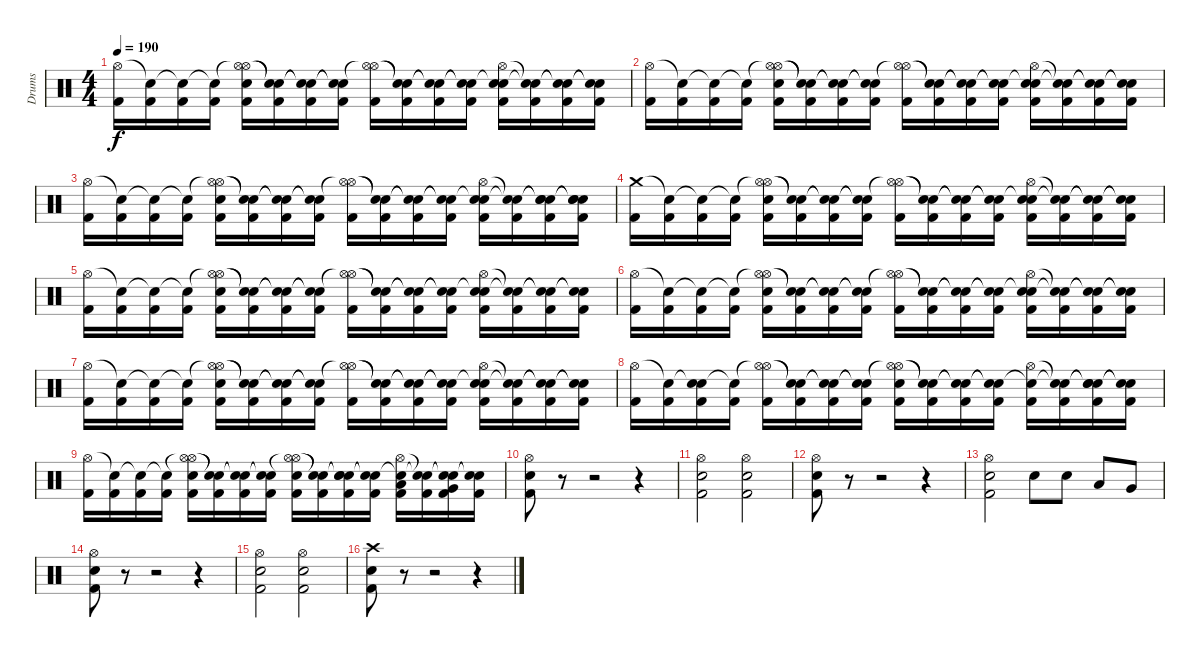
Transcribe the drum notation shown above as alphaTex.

\track ("Drums" "Drums") {instrument percussion}
\staff {score}
\articulation defaults
\ts (4 4)
\tempo 190
\clef neutral
\ks c
("Hi-Hat (open)" "Kick (hit) 2").16{dy f} ("Snare (hit)"{t} "Kick (hit) 2").16 ("Snare (hit)"{t} "Kick (hit) 2").16 ("Snare (hit)"{t} "Kick (hit) 2").16 ("Hi-Hat (open)"{t} "Hi-Hat (open)" "Electric Snare (hit)" "Kick (hit) 2").16 ("Snare (hit)"{t} "Snare (hit)"{t} "Kick (hit) 2").16 ("Snare (hit)"{t} "Snare (hit)"{t} "Kick (hit) 2").16 ("Snare (hit)"{t} "Snare (hit)"{t} "Kick (hit) 2").16 ("Hi-Hat (open)" "Hi-Hat (open)"{t} "Kick (hit) 2").16 ("Snare (hit)"{t} "Snare (hit)"{t} "Kick (hit) 2").16 ("Snare (hit)"{t} "Snare (hit)"{t} "Kick (hit) 2").16 ("Snare (hit)"{t} "Snare (hit)"{t} "Kick (hit) 2").16 ("Snare (hit)"{t} "Hi-Hat (open)" "Electric Snare (hit)" "Kick (hit) 2").16 ("Snare (hit)"{t} "Snare (hit)"{t} "Kick (hit) 2").16 ("Snare (hit)"{t} "Snare (hit)"{t} "Kick (hit) 2").16 ("Snare (hit)"{t} "Snare (hit)"{t} "Kick (hit) 2").16 |
("Hi-Hat (open)" "Kick (hit) 2").16 ("Snare (hit)"{t} "Kick (hit) 2").16 ("Snare (hit)"{t} "Kick (hit) 2").16 ("Snare (hit)"{t} "Kick (hit) 2").16 ("Hi-Hat (open)"{t} "Hi-Hat (open)" "Electric Snare (hit)" "Kick (hit) 2").16 ("Snare (hit)"{t} "Snare (hit)"{t} "Kick (hit) 2").16 ("Snare (hit)"{t} "Snare (hit)"{t} "Kick (hit) 2").16 ("Snare (hit)"{t} "Snare (hit)"{t} "Kick (hit) 2").16 ("Hi-Hat (open)" "Hi-Hat (open)"{t} "Kick (hit) 2").16 ("Snare (hit)"{t} "Snare (hit)"{t} "Kick (hit) 2").16 ("Snare (hit)"{t} "Snare (hit)"{t} "Kick (hit) 2").16 ("Snare (hit)"{t} "Snare (hit)"{t} "Kick (hit) 2").16 ("Snare (hit)"{t} "Hi-Hat (open)" "Electric Snare (hit)" "Kick (hit) 2").16 ("Snare (hit)"{t} "Snare (hit)"{t} "Kick (hit) 2").16 ("Snare (hit)"{t} "Snare (hit)"{t} "Kick (hit) 2").16 ("Snare (hit)"{t} "Snare (hit)"{t} "Kick (hit) 2").16 |
("Hi-Hat (open)" "Kick (hit) 2").16 ("Snare (hit)"{t} "Kick (hit) 2").16 ("Snare (hit)"{t} "Kick (hit) 2").16 ("Snare (hit)"{t} "Kick (hit) 2").16 ("Hi-Hat (open)"{t} "Hi-Hat (open)" "Electric Snare (hit)" "Kick (hit) 2").16 ("Snare (hit)"{t} "Snare (hit)"{t} "Kick (hit) 2").16 ("Snare (hit)"{t} "Snare (hit)"{t} "Kick (hit) 2").16 ("Snare (hit)"{t} "Snare (hit)"{t} "Kick (hit) 2").16 ("Hi-Hat (open)" "Hi-Hat (open)"{t} "Kick (hit) 2").16 ("Snare (hit)"{t} "Snare (hit)"{t} "Kick (hit) 2").16 ("Snare (hit)"{t} "Snare (hit)"{t} "Kick (hit) 2").16 ("Snare (hit)"{t} "Snare (hit)"{t} "Kick (hit) 2").16 ("Snare (hit)"{t} "Hi-Hat (open)" "Electric Snare (hit)" "Kick (hit) 2").16 ("Snare (hit)"{t} "Snare (hit)"{t} "Kick (hit) 2").16 ("Snare (hit)"{t} "Snare (hit)"{t} "Electric Snare (hit)" "Kick (hit) 2").16 ("Snare (hit)"{t} "Snare (hit)"{t} "Electric Snare (hit)" "Kick (hit) 2").16 |
("Crash medium (hit)" "Kick (hit) 2").16 ("Snare (hit)"{t} "Kick (hit) 2").16 ("Snare (hit)"{t} "Kick (hit) 2").16 ("Snare (hit)"{t} "Kick (hit) 2").16 ("Hi-Hat (open)"{t} "Hi-Hat (open)" "Electric Snare (hit)" "Kick (hit) 2").16 ("Snare (hit)"{t} "Snare (hit)"{t} "Kick (hit) 2").16 ("Snare (hit)"{t} "Snare (hit)"{t} "Kick (hit) 2").16 ("Snare (hit)"{t} "Snare (hit)"{t} "Kick (hit) 2").16 ("Hi-Hat (open)" "Hi-Hat (open)"{t} "Kick (hit) 2").16 ("Snare (hit)"{t} "Snare (hit)"{t} "Kick (hit) 2").16 ("Snare (hit)"{t} "Snare (hit)"{t} "Kick (hit) 2").16 ("Snare (hit)"{t} "Snare (hit)"{t} "Kick (hit) 2").16 ("Snare (hit)"{t} "Hi-Hat (open)" "Electric Snare (hit)" "Kick (hit) 2").16 ("Snare (hit)"{t} "Snare (hit)"{t} "Kick (hit) 2").16 ("Snare (hit)"{t} "Snare (hit)"{t} "Kick (hit) 2").16 ("Snare (hit)"{t} "Snare (hit)"{t} "Kick (hit) 2").16 |
("Hi-Hat (open)" "Kick (hit) 2").16 ("Snare (hit)"{t} "Kick (hit) 2").16 ("Snare (hit)"{t} "Kick (hit) 2").16 ("Snare (hit)"{t} "Kick (hit) 2").16 ("Hi-Hat (open)"{t} "Hi-Hat (open)" "Electric Snare (hit)" "Kick (hit) 2").16 ("Snare (hit)"{t} "Snare (hit)"{t} "Kick (hit) 2").16 ("Snare (hit)"{t} "Snare (hit)"{t} "Kick (hit) 2").16 ("Snare (hit)"{t} "Snare (hit)"{t} "Kick (hit) 2").16 ("Hi-Hat (open)" "Hi-Hat (open)"{t} "Kick (hit) 2").16 ("Snare (hit)"{t} "Snare (hit)"{t} "Kick (hit) 2").16 ("Snare (hit)"{t} "Snare (hit)"{t} "Kick (hit) 2").16 ("Snare (hit)"{t} "Snare (hit)"{t} "Kick (hit) 2").16 ("Snare (hit)"{t} "Hi-Hat (open)" "Electric Snare (hit)" "Kick (hit) 2").16 ("Snare (hit)"{t} "Snare (hit)"{t} "Kick (hit) 2").16 ("Snare (hit)"{t} "Snare (hit)"{t} "Kick (hit) 2").16 ("Snare (hit)"{t} "Snare (hit)"{t} "Kick (hit) 2").16 |
("Hi-Hat (open)" "Kick (hit) 2").16 ("Snare (hit)"{t} "Kick (hit) 2").16 ("Snare (hit)"{t} "Kick (hit) 2").16 ("Snare (hit)"{t} "Kick (hit) 2").16 ("Hi-Hat (open)"{t} "Hi-Hat (open)" "Electric Snare (hit)" "Kick (hit) 2").16 ("Snare (hit)"{t} "Snare (hit)"{t} "Kick (hit) 2").16 ("Snare (hit)"{t} "Snare (hit)"{t} "Kick (hit) 2").16 ("Snare (hit)"{t} "Snare (hit)"{t} "Kick (hit) 2").16 ("Hi-Hat (open)" "Hi-Hat (open)"{t} "Kick (hit) 2").16 ("Snare (hit)"{t} "Snare (hit)"{t} "Kick (hit) 2").16 ("Snare (hit)"{t} "Snare (hit)"{t} "Kick (hit) 2").16 ("Snare (hit)"{t} "Snare (hit)"{t} "Kick (hit) 2").16 ("Snare (hit)"{t} "Hi-Hat (open)" "Electric Snare (hit)" "Kick (hit) 2").16 ("Snare (hit)"{t} "Snare (hit)"{t} "Kick (hit) 2").16 ("Snare (hit)"{t} "Snare (hit)"{t} "Kick (hit) 2").16 ("Snare (hit)"{t} "Snare (hit)"{t} "Kick (hit) 2").16 |
("Hi-Hat (open)" "Kick (hit) 2").16 ("Snare (hit)"{t} "Kick (hit) 2").16 ("Snare (hit)"{t} "Kick (hit) 2").16 ("Snare (hit)"{t} "Kick (hit) 2").16 ("Hi-Hat (open)"{t} "Hi-Hat (open)" "Electric Snare (hit)" "Kick (hit) 2").16 ("Snare (hit)"{t} "Snare (hit)"{t} "Kick (hit) 2").16 ("Snare (hit)"{t} "Snare (hit)"{t} "Kick (hit) 2").16 ("Snare (hit)"{t} "Snare (hit)"{t} "Kick (hit) 2").16 ("Hi-Hat (open)" "Hi-Hat (open)"{t} "Kick (hit) 2").16 ("Snare (hit)"{t} "Snare (hit)"{t} "Kick (hit) 2").16 ("Snare (hit)"{t} "Snare (hit)"{t} "Kick (hit) 2").16 ("Snare (hit)"{t} "Snare (hit)"{t} "Kick (hit) 2").16 ("Snare (hit)"{t} "Hi-Hat (open)" "Electric Snare (hit)" "Kick (hit) 2").16 ("Snare (hit)"{t} "Snare (hit)"{t} "Kick (hit) 2").16 ("Snare (hit)"{t} "Snare (hit)"{t} "Kick (hit) 2").16 ("Snare (hit)"{t} "Snare (hit)"{t} "Kick (hit) 2").16 |
("Hi-Hat (open)" "Kick (hit) 2").16 ("Snare (hit)"{t} "Kick (hit) 2").16 ("Snare (hit)"{t} "Electric Snare (hit)" "Kick (hit) 2").16 ("Snare (hit)"{t} "Kick (hit) 2").16 ("Hi-Hat (open)"{t} "Hi-Hat (open)" "Kick (hit) 2").16 ("Snare (hit)"{t} "Snare (hit)"{t} "Kick (hit) 2").16 ("Snare (hit)"{t} "Snare (hit)"{t} "Kick (hit) 2").16 ("Snare (hit)"{t} "Snare (hit)"{t} "Kick (hit) 2").16 ("Hi-Hat (open)" "Hi-Hat (open)"{t} "Electric Snare (hit)" "Kick (hit) 2").16 ("Snare (hit)"{t} "Snare (hit)"{t} "Kick (hit) 2").16 ("Snare (hit)"{t} "Snare (hit)"{t} "Kick (hit) 2").16 ("Snare (hit)"{t} "Snare (hit)"{t} "Kick (hit) 2").16 ("Snare (hit)"{t} "Hi-Hat (open)" "Kick (hit) 2").16 ("Snare (hit)"{t} "Snare (hit)"{t} "Kick (hit) 2").16 ("Snare (hit)"{t} "Snare (hit)"{t} "Electric Snare (hit)" "Kick (hit) 2").16 ("Snare (hit)"{t} "Snare (hit)"{t} "Kick (hit) 2").16 |
("Hi-Hat (open)" "Kick (hit) 2").16 ("Snare (hit)"{t} "Kick (hit) 2").16 ("Snare (hit)"{t} "Kick (hit) 2").16 ("Snare (hit)"{t} "Kick (hit) 2").16 ("Hi-Hat (open)"{t} "Hi-Hat (open)" "Electric Snare (hit)" "Kick (hit) 2").16 ("Snare (hit)"{t} "Snare (hit)"{t} "Kick (hit) 2").16 ("Snare (hit)"{t} "Snare (hit)"{t} "Kick (hit) 2").16 ("Snare (hit)"{t} "Snare (hit)"{t} "Kick (hit) 2").16 ("Hi-Hat (open)" "Hi-Hat (open)"{t} "Electric Snare (hit)" "Kick (hit) 2").16 ("Snare (hit)"{t} "Snare (hit)"{t} "Kick (hit) 2").16 ("Snare (hit)"{t} "Snare (hit)"{t} "Electric Snare (hit)" "Kick (hit) 2").16 ("Snare (hit)"{t} "Snare (hit)"{t} "Kick (hit) 2").16 ("Snare (hit)"{t} "Hi-Hat (open)" "Low Tom (hit)" "Kick (hit) 2").16 ("Snare (hit)"{t} "Snare (hit)"{t} "Kick (hit) 2").16 ("Snare (hit)"{t} "Snare (hit)"{t} "Very Low Tom (hit)" "Kick (hit) 2").16 ("Snare (hit)"{t} "Snare (hit)"{t} "Kick (hit) 2").16 |
("Hi-Hat (open)" "Electric Snare (hit)" "Kick (hit) 2").8 r.8 r.2 r.4 |
("Hi-Hat (open)" "Electric Snare (hit)" "Kick (hit) 2").2 ("Hi-Hat (open)" "Electric Snare (hit)" "Kick (hit) 2").2 |
("Hi-Hat (open)" "Electric Snare (hit)" "Kick (hit) 2").8 r.8 r.2 r.4 |
("Hi-Hat (open)" "Electric Snare (hit)" "Kick (hit) 2").2 "Electric Snare (hit)".8 "Electric Snare (hit)".8 "Low Tom (hit)".8 "Very Low Tom (hit)".8 |
("Hi-Hat (open)" "Electric Snare (hit)" "Kick (hit) 2").8 r.8 r.2 r.4 |
("Hi-Hat (open)" "Electric Snare (hit)" "Kick (hit) 2").2 ("Hi-Hat (open)" "Electric Snare (hit)" "Kick (hit) 2").2 |
("Crash high (hit)" "Electric Snare (hit)" "Kick (hit) 2").8 r.8 r.2 r.4
